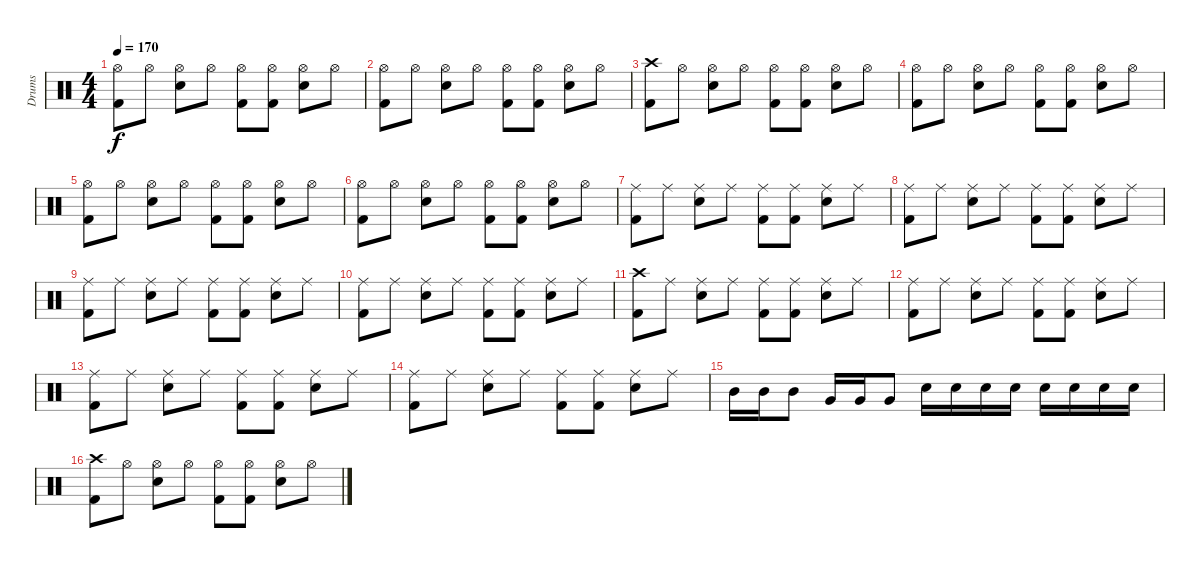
\track ("Drums" "Drums") {instrument percussion}
\staff {score}
\articulation defaults
\ts (4 4)
\tempo 170
\clef neutral
\ks c
("Hi-Hat (open)" "Kick (hit) 2").8{dy f} "Hi-Hat (open)".8 ("Hi-Hat (open)" "Snare (hit) 2").8 "Hi-Hat (open)".8 ("Hi-Hat (open)" "Kick (hit) 2").8 ("Hi-Hat (open)" "Kick (hit) 2").8 ("Hi-Hat (open)" "Snare (hit) 2").8 "Hi-Hat (open)".8 |
("Hi-Hat (open)" "Kick (hit) 2").8 "Hi-Hat (open)".8 ("Hi-Hat (open)" "Snare (hit) 2").8 "Hi-Hat (open)".8 ("Hi-Hat (open)" "Kick (hit) 2").8 ("Hi-Hat (open)" "Kick (hit) 2").8 ("Hi-Hat (open)" "Snare (hit) 2").8 "Hi-Hat (open)".8 |
("Crash high (hit)" "Kick (hit) 2").8 "Hi-Hat (open)".8 ("Hi-Hat (open)" "Snare (hit) 2").8 "Hi-Hat (open)".8 ("Hi-Hat (open)" "Kick (hit) 2").8 ("Hi-Hat (open)" "Kick (hit) 2").8 ("Hi-Hat (open)" "Snare (hit) 2").8 "Hi-Hat (open)".8 |
("Hi-Hat (open)" "Kick (hit) 2").8 "Hi-Hat (open)".8 ("Hi-Hat (open)" "Snare (hit) 2").8 "Hi-Hat (open)".8 ("Hi-Hat (open)" "Kick (hit) 2").8 ("Hi-Hat (open)" "Kick (hit) 2").8 ("Hi-Hat (open)" "Snare (hit) 2").8 "Hi-Hat (open)".8 |
("Hi-Hat (open)" "Kick (hit) 2").8 "Hi-Hat (open)".8 ("Hi-Hat (open)" "Snare (hit) 2").8 "Hi-Hat (open)".8 ("Hi-Hat (open)" "Kick (hit) 2").8 ("Hi-Hat (open)" "Kick (hit) 2").8 ("Hi-Hat (open)" "Snare (hit) 2").8 "Hi-Hat (open)".8 |
("Hi-Hat (open)" "Kick (hit) 2").8 "Hi-Hat (open)".8 ("Hi-Hat (open)" "Snare (hit) 2").8 "Hi-Hat (open)".8 ("Hi-Hat (open)" "Kick (hit) 2").8 ("Hi-Hat (open)" "Kick (hit) 2").8 ("Hi-Hat (open)" "Snare (hit) 2").8 "Hi-Hat (open)".8 |
("Ride (middle)" "Kick (hit) 2").8 "Ride (middle)".8 ("Ride (middle)" "Snare (hit) 2").8 "Ride (middle)".8 ("Ride (middle)" "Kick (hit) 2").8 ("Ride (middle)" "Kick (hit) 2").8 ("Ride (middle)" "Snare (hit) 2").8 "Ride (middle)".8 |
("Ride (middle)" "Kick (hit) 2").8 "Ride (middle)".8 ("Ride (middle)" "Snare (hit) 2").8 "Ride (middle)".8 ("Ride (middle)" "Kick (hit) 2").8 ("Ride (middle)" "Kick (hit) 2").8 ("Ride (middle)" "Snare (hit) 2").8 "Ride (middle)".8 |
("Ride (middle)" "Kick (hit) 2").8 "Ride (middle)".8 ("Ride (middle)" "Snare (hit) 2").8 "Ride (middle)".8 ("Ride (middle)" "Kick (hit) 2").8 ("Ride (middle)" "Kick (hit) 2").8 ("Ride (middle)" "Snare (hit) 2").8 "Ride (middle)".8 |
("Ride (middle)" "Kick (hit) 2").8 "Ride (middle)".8 ("Ride (middle)" "Snare (hit) 2").8 "Ride (middle)".8 ("Ride (middle)" "Kick (hit) 2").8 ("Ride (middle)" "Kick (hit) 2").8 ("Ride (middle)" "Snare (hit) 2").8 "Ride (middle)".8 |
("Crash high (hit)" "Kick (hit) 2").8 "Ride (middle)".8 ("Ride (middle)" "Snare (hit) 2").8 "Ride (middle)".8 ("Ride (middle)" "Kick (hit) 2").8 ("Ride (middle)" "Kick (hit) 2").8 ("Ride (middle)" "Snare (hit) 2").8 "Ride (middle)".8 |
("Ride (middle)" "Kick (hit) 2").8 "Ride (middle)".8 ("Ride (middle)" "Snare (hit) 2").8 "Ride (middle)".8 ("Ride (middle)" "Kick (hit) 2").8 ("Ride (middle)" "Kick (hit) 2").8 ("Ride (middle)" "Snare (hit) 2").8 "Ride (middle)".8 |
("Ride (middle)" "Kick (hit) 2").8 "Ride (middle)".8 ("Ride (middle)" "Snare (hit) 2").8 "Ride (middle)".8 ("Ride (middle)" "Kick (hit) 2").8 ("Ride (middle)" "Kick (hit) 2").8 ("Ride (middle)" "Snare (hit) 2").8 "Ride (middle)".8 |
("Ride (middle)" "Kick (hit) 2").8 "Ride (middle)".8 ("Ride (middle)" "Snare (hit) 2").8 "Ride (middle)".8 ("Ride (middle)" "Kick (hit) 2").8 ("Ride (middle)" "Kick (hit) 2").8 ("Ride (middle)" "Snare (hit) 2").8 "Ride (middle)".8 |
"Mid Tom (hit)".16 "Mid Tom (hit)".16 "Mid Tom (hit)".8 "Very Low Tom (hit)".16 "Very Low Tom (hit)".16 "Very Low Tom (hit)".8 "Snare (hit) 2".16 "Snare (hit) 2".16 "Snare (hit) 2".16 "Snare (hit) 2".16 "Snare (hit) 2".16 "Snare (hit) 2".16 "Snare (hit) 2".16 "Snare (hit) 2".16 |
("Crash high (hit)" "Kick (hit) 2").8 "Hi-Hat (open)".8 ("Hi-Hat (open)" "Snare (hit) 2").8 "Hi-Hat (open)".8 ("Hi-Hat (open)" "Kick (hit) 2").8 ("Hi-Hat (open)" "Kick (hit) 2").8 ("Hi-Hat (open)" "Snare (hit) 2").8 "Hi-Hat (open)".8
